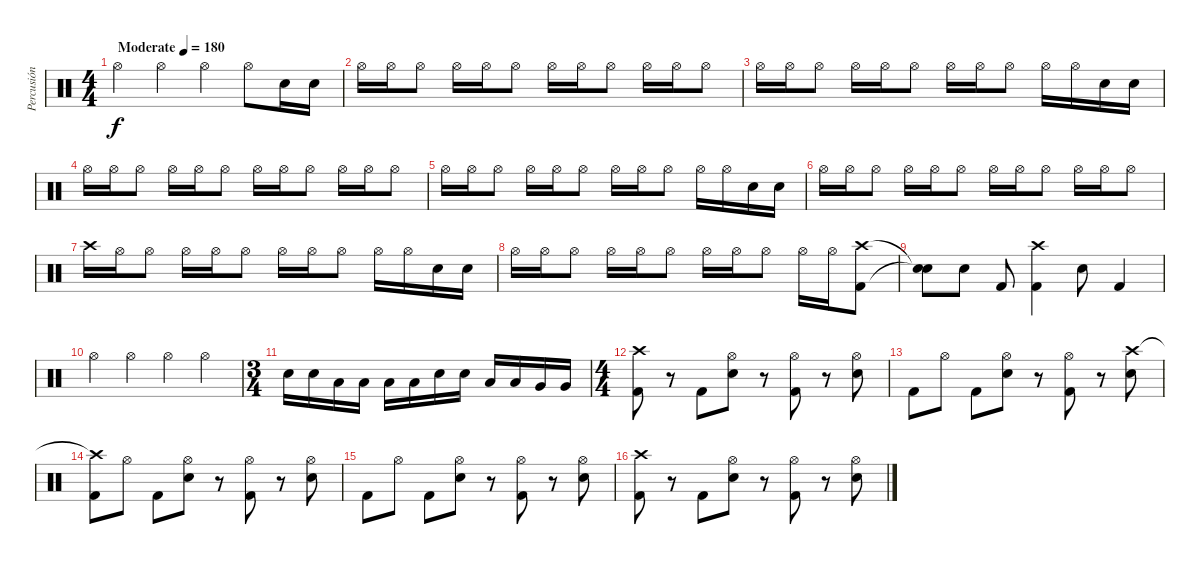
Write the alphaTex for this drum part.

\track ("Percusión" "Percusión") {instrument percussion}
\staff {score}
\articulation defaults
\ts (4 4)
\tempo (180 "Moderate")
\clef neutral
\ks c "Hi-Hat (open)".4{dy f} "Hi-Hat (open)".4 "Hi-Hat (open)".4 "Hi-Hat (open)".8 "Electric Snare (hit)".16 "Electric Snare (hit)".16
|
"Hi-Hat (open)".16 "Hi-Hat (open)".16 "Hi-Hat (open)".8 "Hi-Hat (open)".16 "Hi-Hat (open)".16 "Hi-Hat (open)".8 "Hi-Hat (open)".16 "Hi-Hat (open)".16 "Hi-Hat (open)".8 "Hi-Hat (open)".16 "Hi-Hat (open)".16 "Hi-Hat (open)".8 |
"Hi-Hat (open)".16 "Hi-Hat (open)".16 "Hi-Hat (open)".8 "Hi-Hat (open)".16 "Hi-Hat (open)".16 "Hi-Hat (open)".8 "Hi-Hat (open)".16 "Hi-Hat (open)".16 "Hi-Hat (open)".8 "Hi-Hat (open)".16 "Hi-Hat (open)".16 "Electric Snare (hit)".16 "Electric Snare (hit)".16 |
"Hi-Hat (open)".16 "Hi-Hat (open)".16 "Hi-Hat (open)".8 "Hi-Hat (open)".16 "Hi-Hat (open)".16 "Hi-Hat (open)".8 "Hi-Hat (open)".16 "Hi-Hat (open)".16 "Hi-Hat (open)".8 "Hi-Hat (open)".16 "Hi-Hat (open)".16 "Hi-Hat (open)".8 |
"Hi-Hat (open)".16 "Hi-Hat (open)".16 "Hi-Hat (open)".8 "Hi-Hat (open)".16 "Hi-Hat (open)".16 "Hi-Hat (open)".8 "Hi-Hat (open)".16 "Hi-Hat (open)".16 "Hi-Hat (open)".8 "Hi-Hat (open)".16 "Hi-Hat (open)".16 "Electric Snare (hit)".16 "Electric Snare (hit)".16 |
"Hi-Hat (open)".16 "Hi-Hat (open)".16 "Hi-Hat (open)".8 "Hi-Hat (open)".16 "Hi-Hat (open)".16 "Hi-Hat (open)".8 "Hi-Hat (open)".16 "Hi-Hat (open)".16 "Hi-Hat (open)".8 "Hi-Hat (open)".16 "Hi-Hat (open)".16 "Hi-Hat (open)".8 |
"Crash high (hit)".16 "Hi-Hat (open)".16 "Hi-Hat (open)".8 "Hi-Hat (open)".16 "Hi-Hat (open)".16 "Hi-Hat (open)".8 "Hi-Hat (open)".16 "Hi-Hat (open)".16 "Hi-Hat (open)".8 "Hi-Hat (open)".16 "Hi-Hat (open)".16 "Electric Snare (hit)".16 "Electric Snare (hit)".16 |
"Hi-Hat (open)".16 "Hi-Hat (open)".16 "Hi-Hat (open)".8 "Hi-Hat (open)".16 "Hi-Hat (open)".16 "Hi-Hat (open)".8 "Hi-Hat (open)".16 "Hi-Hat (open)".16 "Hi-Hat (open)".8 "Hi-Hat (open)".16 "Hi-Hat (open)".16 ("Crash high (hit)" "Kick (hit) 2").8 |
("Snare (hit)"{t} "Electric Snare (hit)"{t}).8 "Electric Snare (hit)".8 "Kick (hit) 2".8 ("Crash high (hit)" "Kick (hit) 2").4 "Electric Snare (hit)".8 "Kick (hit) 2".4 |
"Hi-Hat (open)".4 "Hi-Hat (open)".4 "Hi-Hat (open)".4 "Hi-Hat (open)".4 |
\ts (3 4)
"Electric Snare (hit)".16 "Electric Snare (hit)".16 "Low Tom (hit)".16 "Low Tom (hit)".16 "Low Tom (hit)".16 "Low Tom (hit)".16 "Electric Snare (hit)".16 "Electric Snare (hit)".16 "Low Tom (hit)".16 "Low Tom (hit)".16 "Very Low Tom (hit)".16 "Very Low Tom (hit)".16 |
\ts (4 4)
("Crash high (hit)" "Kick (hit) 2").8 r.8 "Kick (hit) 2".8 ("Hi-Hat (open)" "Electric Snare (hit)").8 r.8 ("Hi-Hat (open)" "Kick (hit) 2").8 r.8 ("Hi-Hat (open)" "Electric Snare (hit)").8 |
"Kick (hit) 2".8 "Hi-Hat (open)".8 "Kick (hit) 2".8 ("Hi-Hat (open)" "Electric Snare (hit)").8 r.8 ("Hi-Hat (open)" "Kick (hit) 2").8 r.8 ("Crash high (hit)" "Electric Snare (hit)").8 |
("Crash high (hit)"{t} "Kick (hit) 2").8 "Hi-Hat (open)".8 "Kick (hit) 2".8 ("Hi-Hat (open)" "Electric Snare (hit)").8 r.8 ("Hi-Hat (open)" "Kick (hit) 2").8 r.8 ("Hi-Hat (open)" "Electric Snare (hit)").8 |
"Kick (hit) 2".8 "Hi-Hat (open)".8 "Kick (hit) 2".8 ("Hi-Hat (open)" "Electric Snare (hit)").8 r.8 ("Hi-Hat (open)" "Kick (hit) 2").8 r.8 ("Hi-Hat (open)" "Electric Snare (hit)").8 |
("Crash high (hit)" "Kick (hit) 2").8 r.8 "Kick (hit) 2".8 ("Hi-Hat (open)" "Electric Snare (hit)").8 r.8 ("Hi-Hat (open)" "Kick (hit) 2").8 r.8 ("Hi-Hat (open)" "Electric Snare (hit)").8
